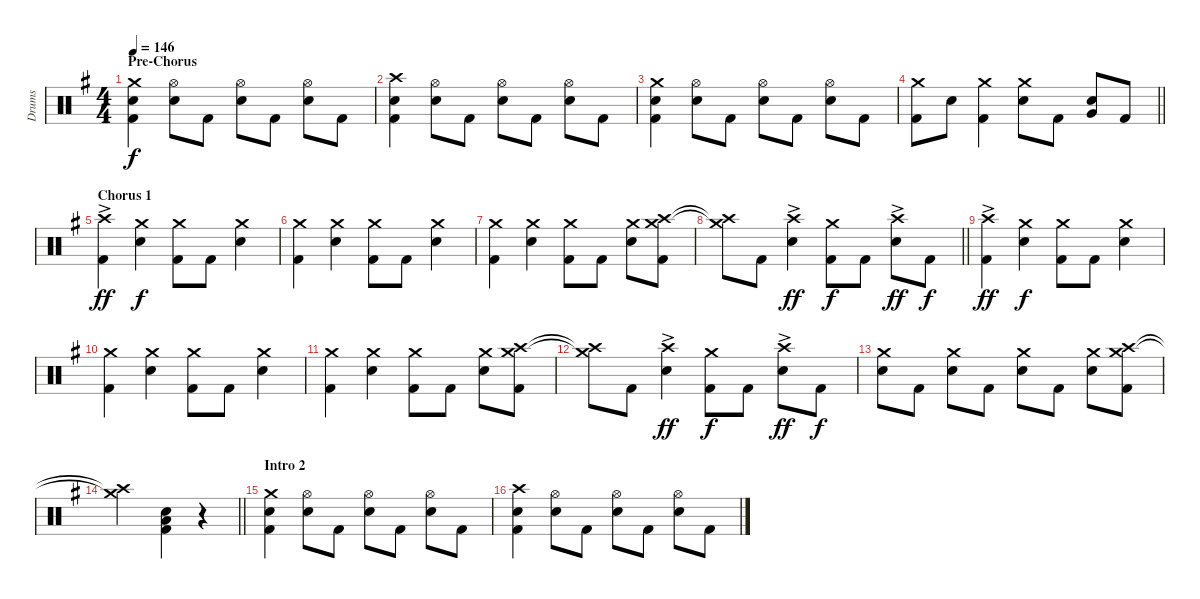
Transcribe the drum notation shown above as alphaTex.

\track ("Drums" "Drums") {instrument percussion}
\staff {score}
\articulation defaults
\ts (4 4)
\section ("" "Pre-Chorus")
\tempo 146
\clef neutral
\ks g
("Crash medium (hit)" "Electric Snare (hit)" "Kick (hit) 2").4{dy f} ("Hi-Hat (open)" "Electric Snare (hit)").8 "Kick (hit) 2".8 ("Hi-Hat (open)" "Electric Snare (hit)").8 "Kick (hit) 2".8 ("Hi-Hat (open)" "Electric Snare (hit)").8 "Kick (hit) 2".8 |
("Crash high (hit)" "Electric Snare (hit)" "Kick (hit) 2").4 ("Hi-Hat (open)" "Electric Snare (hit)").8 "Kick (hit) 2".8 ("Hi-Hat (open)" "Electric Snare (hit)").8 "Kick (hit) 2".8 ("Hi-Hat (open)" "Electric Snare (hit)").8 "Kick (hit) 2".8 |
("Crash medium (hit)" "Electric Snare (hit)" "Kick (hit) 2").4 ("Hi-Hat (open)" "Electric Snare (hit)").8 "Kick (hit) 2".8 ("Hi-Hat (open)" "Electric Snare (hit)").8 "Kick (hit) 2".8 ("Hi-Hat (open)" "Electric Snare (hit)").8 "Kick (hit) 2".8 |
\barLineRight lightlight
("Crash medium (hit)" "Kick (hit) 2").8 "Electric Snare (hit)".8 ("Crash medium (hit)" "Kick (hit) 2").4 ("Crash medium (hit)" "Electric Snare (hit)").8 "Kick (hit) 2".8 ("Very Low Tom (hit)" "Electric Snare (hit)").8 "Kick (hit) 2".8 |
\section ("" "Chorus 1")
("Crash high (hit)"{ac} "Kick (hit) 2").4{dy ff} ("Crash medium (hit)" "Electric Snare (hit)").4{dy f} ("Crash medium (hit)" "Kick (hit) 2").8 "Kick (hit) 2".8 ("Crash medium (hit)" "Electric Snare (hit)").4 |
("Crash medium (hit)" "Kick (hit) 2").4 ("Crash medium (hit)" "Electric Snare (hit)").4 ("Crash medium (hit)" "Kick (hit) 2").8 "Kick (hit) 2".8 ("Crash medium (hit)" "Electric Snare (hit)").4 |
("Crash medium (hit)" "Kick (hit) 2").4 ("Crash medium (hit)" "Electric Snare (hit)").4 ("Crash medium (hit)" "Kick (hit) 2").8 "Kick (hit) 2".8 ("Crash medium (hit)" "Electric Snare (hit)").8 ("Crash high (hit)" "Crash medium (hit)" "Kick (hit) 2").8 |
\barLineRight lightlight
("Crash high (hit)"{t} "Crash medium (hit)"{t}).8 "Kick (hit) 2".8 ("Crash high (hit)"{ac} "Electric Snare (hit)").4{dy ff} ("Crash medium (hit)" "Kick (hit) 2").8{dy f} "Kick (hit) 2".8 ("Crash high (hit)"{ac} "Electric Snare (hit)").8{dy ff} "Kick (hit) 2".8{dy f} |
("Crash high (hit)"{ac} "Kick (hit) 2").4{dy ff} ("Crash medium (hit)" "Electric Snare (hit)").4{dy f} ("Crash medium (hit)" "Kick (hit) 2").8 "Kick (hit) 2".8 ("Crash medium (hit)" "Electric Snare (hit)").4 |
("Crash medium (hit)" "Kick (hit) 2").4 ("Crash medium (hit)" "Electric Snare (hit)").4 ("Crash medium (hit)" "Kick (hit) 2").8 "Kick (hit) 2".8 ("Crash medium (hit)" "Electric Snare (hit)").4 |
("Crash medium (hit)" "Kick (hit) 2").4 ("Crash medium (hit)" "Electric Snare (hit)").4 ("Crash medium (hit)" "Kick (hit) 2").8 "Kick (hit) 2".8 ("Crash medium (hit)" "Electric Snare (hit)").8 ("Crash high (hit)" "Crash medium (hit)" "Kick (hit) 2").8 |
("Crash high (hit)"{t} "Crash medium (hit)"{t}).8 "Kick (hit) 2".8 ("Crash high (hit)"{ac} "Electric Snare (hit)").4{dy ff} ("Crash medium (hit)" "Kick (hit) 2").8{dy f} "Kick (hit) 2".8 ("Crash high (hit)"{ac} "Electric Snare (hit)").8{dy ff} "Kick (hit) 2".8{dy f} |
("Crash medium (hit)" "Electric Snare (hit)").8 "Kick (hit) 2".8 ("Crash medium (hit)" "Electric Snare (hit)").8 "Kick (hit) 2".8 ("Crash medium (hit)" "Electric Snare (hit)").8 "Kick (hit) 2".8 ("Crash medium (hit)" "Electric Snare (hit)").8 ("Crash high (hit)" "Crash medium (hit)" "Kick (hit) 2").8 |
\barLineRight lightlight
("Crash high (hit)"{t} "Crash medium (hit)"{t}).2 ("Electric Snare (hit)" "Low Floor Tom (hit)" "Kick (hit) 2").4 r.4 |
\section ("" "Intro 2")
("Crash medium (hit)" "Electric Snare (hit)" "Kick (hit) 2").4 ("Hi-Hat (open)" "Electric Snare (hit)").8 "Kick (hit) 2".8 ("Hi-Hat (open)" "Electric Snare (hit)").8 "Kick (hit) 2".8 ("Hi-Hat (open)" "Electric Snare (hit)").8 "Kick (hit) 2".8 |
("Crash high (hit)" "Electric Snare (hit)" "Kick (hit) 2").4 ("Hi-Hat (open)" "Electric Snare (hit)").8 "Kick (hit) 2".8 ("Hi-Hat (open)" "Electric Snare (hit)").8 "Kick (hit) 2".8 ("Hi-Hat (open)" "Electric Snare (hit)").8 "Kick (hit) 2".8
